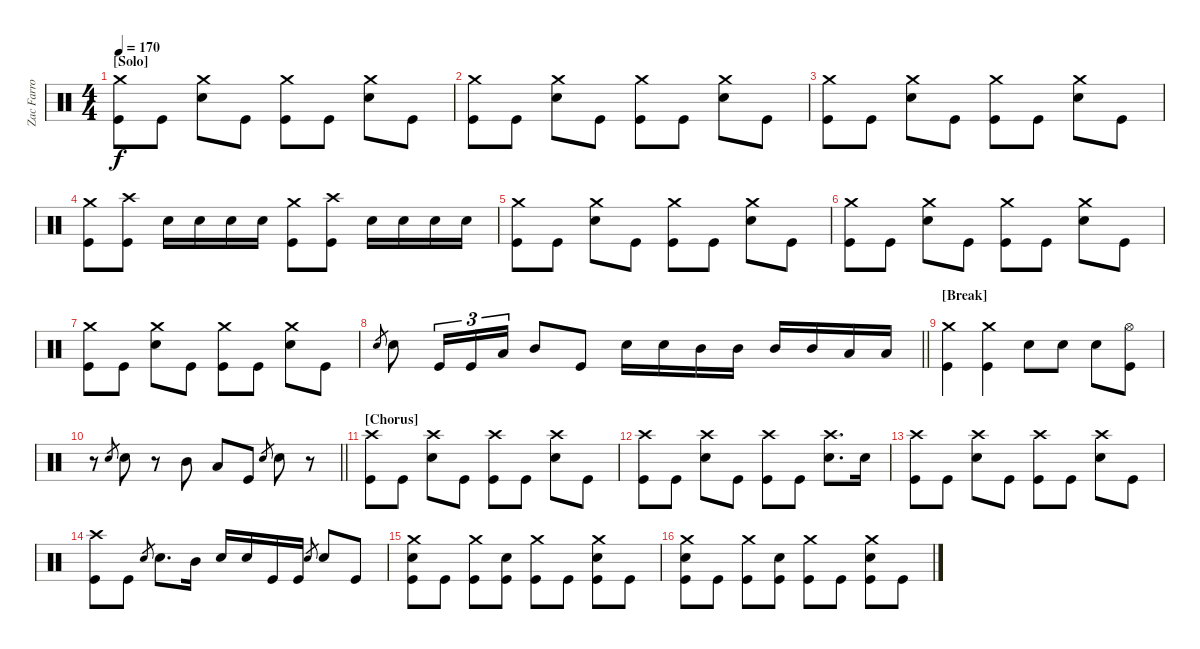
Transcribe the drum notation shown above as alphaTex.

\track ("Zac Farro" "Zac Farro") {instrument percussion}
\staff {score}
\articulation defaults
\ts (4 4)
\section ("" "[Solo]")
\tempo 170
\clef neutral
\ks c
("Crash medium (hit)" "Kick (hit)").8{dy f} "Kick (hit)".8 ("Crash medium (hit)" "Electric Snare (hit)").8 "Kick (hit)".8 ("Crash medium (hit)" "Kick (hit)").8 "Kick (hit)".8 ("Crash medium (hit)" "Electric Snare (hit)").8 "Kick (hit)".8 |
("Crash medium (hit)" "Kick (hit)").8 "Kick (hit)".8 ("Crash medium (hit)" "Electric Snare (hit)").8 "Kick (hit)".8 ("Crash medium (hit)" "Kick (hit)").8 "Kick (hit)".8 ("Crash medium (hit)" "Electric Snare (hit)").8 "Kick (hit)".8 |
("Crash medium (hit)" "Kick (hit)").8 "Kick (hit)".8 ("Crash medium (hit)" "Electric Snare (hit)").8 "Kick (hit)".8 ("Crash medium (hit)" "Kick (hit)").8 "Kick (hit)".8 ("Crash medium (hit)" "Electric Snare (hit)").8 "Kick (hit)".8 |
("Crash medium (hit)" "Kick (hit)").8 ("Crash high (hit)" "Kick (hit)").8 "Electric Snare (hit)".16 "Electric Snare (hit)".16 "Electric Snare (hit)".16 "Electric Snare (hit)".16 ("Crash medium (hit)" "Kick (hit)").8 ("Crash high (hit)" "Kick (hit)").8 "Electric Snare (hit)".16 "Electric Snare (hit)".16 "Electric Snare (hit)".16 "Electric Snare (hit)".16 |
("Crash medium (hit)" "Kick (hit)").8 "Kick (hit)".8 ("Crash medium (hit)" "Electric Snare (hit)").8 "Kick (hit)".8 ("Crash medium (hit)" "Kick (hit)").8 "Kick (hit)".8 ("Crash medium (hit)" "Electric Snare (hit)").8 "Kick (hit)".8 |
("Crash medium (hit)" "Kick (hit)").8 "Kick (hit)".8 ("Crash medium (hit)" "Electric Snare (hit)").8 "Kick (hit)".8 ("Crash medium (hit)" "Kick (hit)").8 "Kick (hit)".8 ("Crash medium (hit)" "Electric Snare (hit)").8 "Kick (hit)".8 |
("Crash medium (hit)" "Kick (hit)").8 "Kick (hit)".8 ("Crash medium (hit)" "Electric Snare (hit)").8 "Kick (hit)".8 ("Crash medium (hit)" "Kick (hit)").8 "Kick (hit)".8 ("Crash medium (hit)" "Electric Snare (hit)").8 "Kick (hit)".8 |
\barLineRight lightlight "Electric Snare (hit)".8{gr} "Electric Snare (hit)".8 "Kick (hit)".16{tu (3 2)} "Kick (hit)".16{tu (3 2)} "Low Tom (hit)".16{tu (3 2)} "Mid Tom (hit)".8 "Kick (hit)".8 "Electric Snare (hit)".16 "Electric Snare (hit)".16 "Mid Tom (hit)".16 "Mid Tom (hit)".16 "Mid Tom (hit)".16 "Mid Tom (hit)".16 "Low Tom (hit)".16 "Low Tom (hit)".16
|
\section ("" "[Break]")
("Crash medium (hit)" "Kick (hit)").4 ("Crash medium (hit)" "Kick (hit)").4 "Electric Snare (hit)".8 "Electric Snare (hit)".8 "Electric Snare (hit)".8 ("Hi-Hat (open)" "Kick (hit)").8 |
\barLineRight lightlight
r.8 "Electric Snare (hit)".8{gr} "Electric Snare (hit)".8 r.8 "Mid Tom (hit)".8 "Low Tom (hit)".8 "Kick (hit)".8 "Electric Snare (hit)".8{gr} "Electric Snare (hit)".8 r.8 |
\section ("" "[Chorus]")
("Crash high (hit)" "Kick (hit)").8 "Kick (hit)".8 ("Crash high (hit)" "Electric Snare (hit)").8 "Kick (hit)".8 ("Crash high (hit)" "Kick (hit)").8 "Kick (hit)".8 ("Crash high (hit)" "Electric Snare (hit)").8 "Kick (hit)".8 |
("Crash high (hit)" "Kick (hit)").8 "Kick (hit)".8 ("Crash high (hit)" "Electric Snare (hit)").8 "Kick (hit)".8 ("Crash high (hit)" "Kick (hit)").8 "Kick (hit)".8 ("Crash high (hit)" "Electric Snare (hit)").8{d} "Electric Snare (hit)".16 |
("Crash high (hit)" "Kick (hit)").8 "Kick (hit)".8 ("Crash high (hit)" "Electric Snare (hit)").8 "Kick (hit)".8 ("Crash high (hit)" "Kick (hit)").8 "Kick (hit)".8 ("Crash high (hit)" "Electric Snare (hit)").8 "Kick (hit)".8 |
("Crash high (hit)" "Kick (hit)").8 "Kick (hit)".8 "Electric Snare (hit)".8{gr} "Electric Snare (hit)".8{d} "Mid Tom (hit)".16 "Electric Snare (hit)".16 "Electric Snare (hit)".16 "Kick (hit)".16 "Kick (hit)".16 "Electric Snare (hit)".8{gr} "Electric Snare (hit)".8 "Kick (hit)".8 |
("Crash medium (hit)" "Electric Snare (hit)" "Kick (hit)").8 "Kick (hit)".8 ("Crash medium (hit)" "Kick (hit)").8 ("Electric Snare (hit)" "Kick (hit)").8 ("Crash medium (hit)" "Kick (hit)").8 "Kick (hit)".8 ("Crash medium (hit)" "Electric Snare (hit)" "Kick (hit)").8 "Kick (hit)".8 |
("Crash medium (hit)" "Electric Snare (hit)" "Kick (hit)").8 "Kick (hit)".8 ("Crash medium (hit)" "Kick (hit)").8 ("Electric Snare (hit)" "Kick (hit)").8 ("Crash medium (hit)" "Kick (hit)").8 "Kick (hit)".8 ("Crash medium (hit)" "Electric Snare (hit)" "Kick (hit)").8 "Kick (hit)".8
